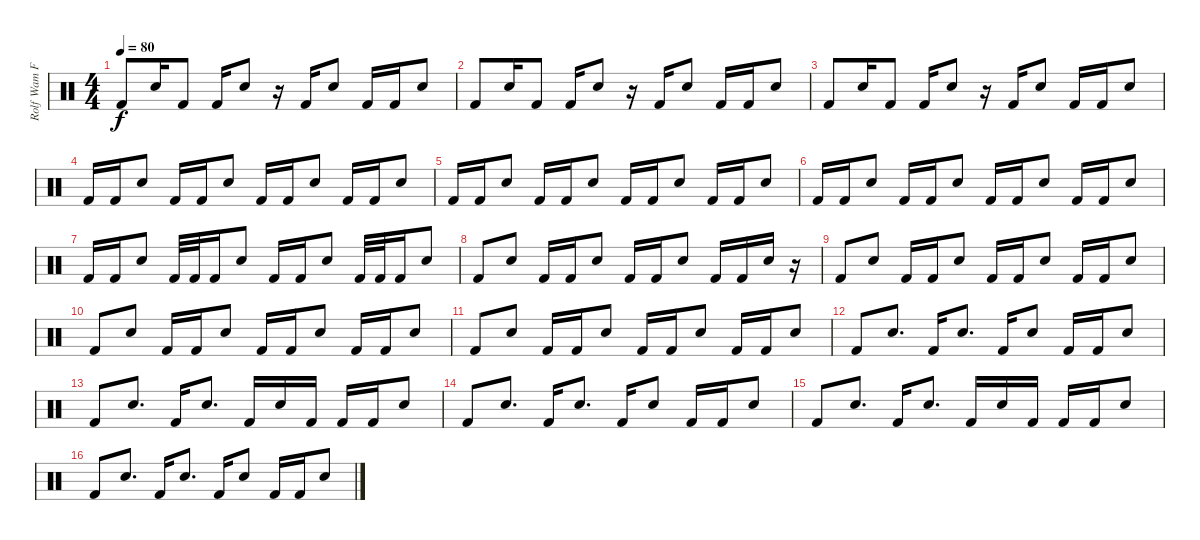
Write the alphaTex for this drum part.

\track ("Rolf Wam Fjell" "Rolf Wam F") {instrument percussion}
\staff {score}
\articulation defaults
\ts (4 4)
\tempo 80
\clef neutral
\ks c "Kick (hit) 2".8{dy f} "Snare (hit) 2".16 "Kick (hit) 2".8 "Kick (hit) 2".16 "Snare (hit) 2".8
r.16 "Kick (hit) 2".16 "Snare (hit) 2".8 "Kick (hit) 2".16 "Kick (hit) 2".16 "Snare (hit) 2".8 |
"Kick (hit) 2".8 "Snare (hit) 2".16 "Kick (hit) 2".8 "Kick (hit) 2".16 "Snare (hit) 2".8 r.16 "Kick (hit) 2".16 "Snare (hit) 2".8 "Kick (hit) 2".16 "Kick (hit) 2".16 "Snare (hit) 2".8 |
"Kick (hit) 2".8 "Snare (hit) 2".16 "Kick (hit) 2".8 "Kick (hit) 2".16 "Snare (hit) 2".8 r.16 "Kick (hit) 2".16 "Snare (hit) 2".8 "Kick (hit) 2".16 "Kick (hit) 2".16 "Snare (hit) 2".8 |
"Kick (hit) 2".16 "Kick (hit) 2".16 "Snare (hit) 2".8 "Kick (hit) 2".16 "Kick (hit) 2".16 "Snare (hit) 2".8 "Kick (hit) 2".16 "Kick (hit) 2".16 "Snare (hit) 2".8 "Kick (hit) 2".16 "Kick (hit) 2".16 "Snare (hit) 2".8 |
"Kick (hit) 2".16 "Kick (hit) 2".16 "Snare (hit) 2".8 "Kick (hit) 2".16 "Kick (hit) 2".16 "Snare (hit) 2".8 "Kick (hit) 2".16 "Kick (hit) 2".16 "Snare (hit) 2".8 "Kick (hit) 2".16 "Kick (hit) 2".16 "Snare (hit) 2".8 |
"Kick (hit) 2".16 "Kick (hit) 2".16 "Snare (hit) 2".8 "Kick (hit) 2".16 "Kick (hit) 2".16 "Snare (hit) 2".8 "Kick (hit) 2".16 "Kick (hit) 2".16 "Snare (hit) 2".8 "Kick (hit) 2".16 "Kick (hit) 2".16 "Snare (hit) 2".8 |
"Kick (hit) 2".16 "Kick (hit) 2".16 "Snare (hit) 2".8 "Kick (hit) 2".32 "Kick (hit) 2".32 "Kick (hit) 2".16 "Snare (hit) 2".8 "Kick (hit) 2".16 "Kick (hit) 2".16 "Snare (hit) 2".8 "Kick (hit) 2".32 "Kick (hit) 2".32 "Kick (hit) 2".16 "Snare (hit) 2".8 |
"Kick (hit) 2".8 "Snare (hit) 2".8 "Kick (hit) 2".16 "Kick (hit) 2".16 "Snare (hit) 2".8 "Kick (hit) 2".16 "Kick (hit) 2".16 "Snare (hit) 2".8 "Kick (hit) 2".16 "Kick (hit) 2".16 "Snare (hit) 2".16 r.16 |
"Kick (hit) 2".8 "Snare (hit) 2".8 "Kick (hit) 2".16 "Kick (hit) 2".16 "Snare (hit) 2".8 "Kick (hit) 2".16 "Kick (hit) 2".16 "Snare (hit) 2".8 "Kick (hit) 2".16 "Kick (hit) 2".16 "Snare (hit) 2".8 |
"Kick (hit) 2".8 "Snare (hit) 2".8 "Kick (hit) 2".16 "Kick (hit) 2".16 "Snare (hit) 2".8 "Kick (hit) 2".16 "Kick (hit) 2".16 "Snare (hit) 2".8 "Kick (hit) 2".16 "Kick (hit) 2".16 "Snare (hit) 2".8 |
"Kick (hit) 2".8 "Snare (hit) 2".8 "Kick (hit) 2".16 "Kick (hit) 2".16 "Snare (hit) 2".8 "Kick (hit) 2".16 "Kick (hit) 2".16 "Snare (hit) 2".8 "Kick (hit) 2".16 "Kick (hit) 2".16 "Snare (hit) 2".8 |
"Kick (hit) 2".8 "Snare (hit) 2".8{d} "Kick (hit) 2".16 "Snare (hit) 2".8{d} "Kick (hit) 2".16 "Snare (hit) 2".8 "Kick (hit) 2".16 "Kick (hit) 2".16 "Snare (hit) 2".8 |
"Kick (hit) 2".8 "Snare (hit) 2".8{d} "Kick (hit) 2".16 "Snare (hit) 2".8{d} "Kick (hit) 2".16 "Snare (hit) 2".16 "Kick (hit) 2".16 "Kick (hit) 2".16 "Kick (hit) 2".16 "Snare (hit) 2".8 |
"Kick (hit) 2".8 "Snare (hit) 2".8{d} "Kick (hit) 2".16 "Snare (hit) 2".8{d} "Kick (hit) 2".16 "Snare (hit) 2".8 "Kick (hit) 2".16 "Kick (hit) 2".16 "Snare (hit) 2".8 |
"Kick (hit) 2".8 "Snare (hit) 2".8{d} "Kick (hit) 2".16 "Snare (hit) 2".8{d} "Kick (hit) 2".16 "Snare (hit) 2".16 "Kick (hit) 2".16 "Kick (hit) 2".16 "Kick (hit) 2".16 "Snare (hit) 2".8 |
"Kick (hit) 2".8 "Snare (hit) 2".8{d} "Kick (hit) 2".16 "Snare (hit) 2".8{d} "Kick (hit) 2".16 "Snare (hit) 2".8 "Kick (hit) 2".16 "Kick (hit) 2".16 "Snare (hit) 2".8
